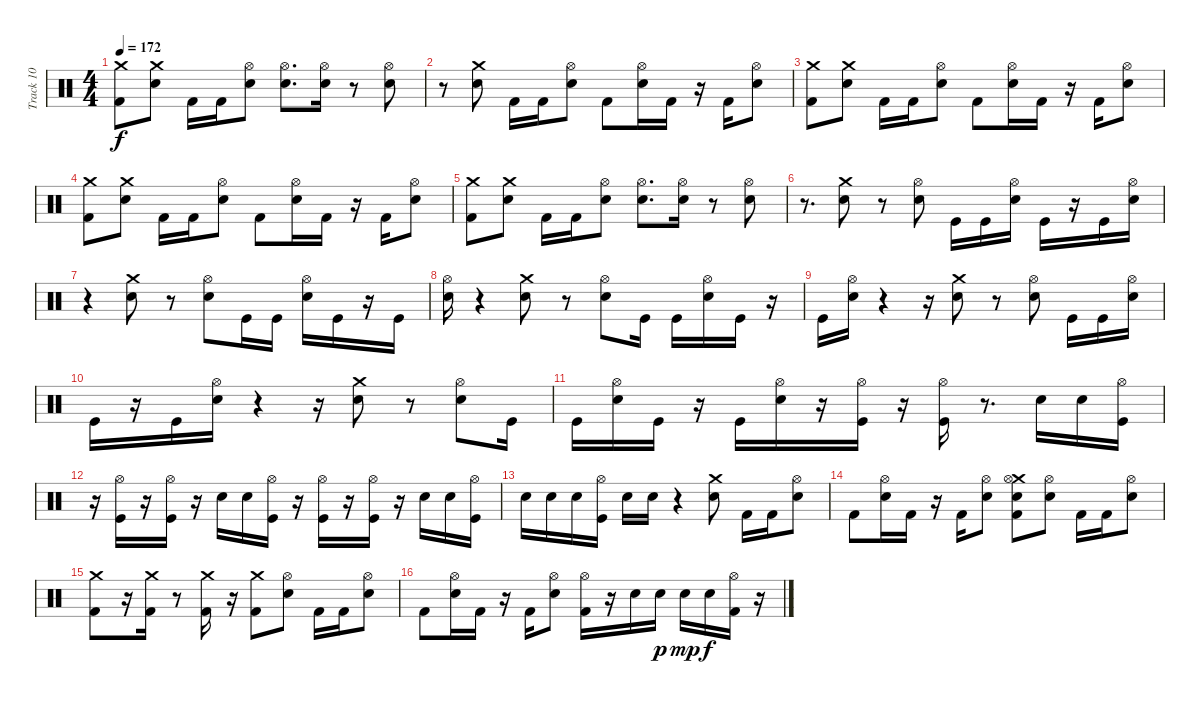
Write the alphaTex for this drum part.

\track ("Track 10" "Track 10") {instrument percussion}
\staff {score}
\articulation defaults
\ts (4 4)
\tempo 172
\clef neutral
\ks c
("Crash medium (hit)" "Kick (hit) 2").8{dy f} ("Crash medium (hit)" "Electric Snare (hit)").8 "Kick (hit) 2".16 "Kick (hit) 2".16 ("Hi-Hat (open)" "Electric Snare (hit)").8 ("Hi-Hat (open)" "Electric Snare (hit)").8{d} ("Hi-Hat (open)" "Electric Snare (hit)").16 r.8 ("Hi-Hat (open)" "Electric Snare (hit)").8 |
r.8 ("Crash medium (hit)" "Electric Snare (hit)").8 "Kick (hit) 2".16 "Kick (hit) 2".16 ("Hi-Hat (open)" "Electric Snare (hit)").8 "Kick (hit) 2".8 ("Hi-Hat (open)" "Electric Snare (hit)").16 "Kick (hit) 2".16 r.16 "Kick (hit) 2".16 ("Hi-Hat (open)" "Electric Snare (hit)").8 |
("Crash medium (hit)" "Kick (hit) 2").8 ("Crash medium (hit)" "Electric Snare (hit)").8 "Kick (hit) 2".16 "Kick (hit) 2".16 ("Hi-Hat (open)" "Electric Snare (hit)").8 "Kick (hit) 2".8 ("Hi-Hat (open)" "Electric Snare (hit)").16 "Kick (hit) 2".16 r.16 "Kick (hit) 2".16 ("Hi-Hat (open)" "Electric Snare (hit)").8 |
("Crash medium (hit)" "Kick (hit) 2").8 ("Crash medium (hit)" "Electric Snare (hit)").8 "Kick (hit) 2".16 "Kick (hit) 2".16 ("Hi-Hat (open)" "Electric Snare (hit)").8 "Kick (hit) 2".8 ("Hi-Hat (open)" "Electric Snare (hit)").16 "Kick (hit) 2".16 r.16 "Kick (hit) 2".16 ("Hi-Hat (open)" "Electric Snare (hit)").8 |
("Crash medium (hit)" "Kick (hit) 2").8 ("Crash medium (hit)" "Electric Snare (hit)").8 "Kick (hit) 2".16 "Kick (hit) 2".16 ("Hi-Hat (open)" "Electric Snare (hit)").8 ("Hi-Hat (open)" "Electric Snare (hit)").8{d} ("Hi-Hat (open)" "Electric Snare (hit)").16 r.8 ("Hi-Hat (open)" "Electric Snare (hit)").8 |
r.8{d} ("Crash medium (hit)" "Electric Snare (hit)").8 r.8 ("Hi-Hat (open)" "Electric Snare (hit)").8 "Kick (hit)".16 "Kick (hit)".16 ("Hi-Hat (open)" "Electric Snare (hit)").16 "Kick (hit)".16 r.16 "Kick (hit)".16 ("Hi-Hat (open)" "Electric Snare (hit)").16 |
r.4 ("Crash medium (hit)" "Electric Snare (hit)").8 r.8 ("Hi-Hat (open)" "Electric Snare (hit)").8 "Kick (hit)".16 "Kick (hit)".16 ("Hi-Hat (open)" "Electric Snare (hit)").16 "Kick (hit)".16 r.16 "Kick (hit)".16 |
("Hi-Hat (open)" "Electric Snare (hit)").16 r.4 ("Crash medium (hit)" "Electric Snare (hit)").8 r.8 ("Hi-Hat (open)" "Electric Snare (hit)").8 "Kick (hit)".16 "Kick (hit)".16 ("Hi-Hat (open)" "Electric Snare (hit)").16 "Kick (hit)".16 r.16 |
"Kick (hit)".16 ("Hi-Hat (open)" "Electric Snare (hit)").16 r.4 r.16 ("Crash medium (hit)" "Electric Snare (hit)").8 r.8 ("Hi-Hat (open)" "Electric Snare (hit)").8 "Kick (hit)".16 "Kick (hit)".16 ("Hi-Hat (open)" "Electric Snare (hit)").16 |
"Kick (hit)".16 r.16 "Kick (hit)".16 ("Hi-Hat (open)" "Electric Snare (hit)").16 r.4 r.16 ("Crash medium (hit)" "Electric Snare (hit)").8 r.8 ("Hi-Hat (open)" "Electric Snare (hit)").8 "Kick (hit)".16 |
"Kick (hit)".16 ("Hi-Hat (open)" "Electric Snare (hit)").16 "Kick (hit)".16 r.16 "Kick (hit)".16 ("Hi-Hat (open)" "Electric Snare (hit)").16 r.16 ("Hi-Hat (open)" "Kick (hit)").16 r.16 ("Hi-Hat (open)" "Kick (hit)").16 r.8{d} "Electric Snare (hit)".16 "Electric Snare (hit)".16 ("Hi-Hat (open)" "Kick (hit)").16 |
r.16 ("Hi-Hat (open)" "Kick (hit)").16 r.16 ("Hi-Hat (open)" "Kick (hit)").16 r.16 "Electric Snare (hit)".16 "Electric Snare (hit)".16 ("Hi-Hat (open)" "Kick (hit)").16 r.16 ("Hi-Hat (open)" "Kick (hit)").16 r.16 ("Hi-Hat (open)" "Kick (hit)").16 r.16 "Electric Snare (hit)".16 "Electric Snare (hit)".16 ("Hi-Hat (open)" "Kick (hit)").16 |
"Electric Snare (hit)".16 "Electric Snare (hit)".16 "Electric Snare (hit)".16 ("Hi-Hat (open)" "Kick (hit)").16 "Electric Snare (hit)".16 "Electric Snare (hit)".16 r.4 ("Crash medium (hit)" "Electric Snare (hit)").8 "Kick (hit) 2".16 "Kick (hit) 2".16 ("Hi-Hat (open)" "Electric Snare (hit)").8 |
"Kick (hit) 2".8 ("Hi-Hat (open)" "Electric Snare (hit)").16 "Kick (hit) 2".16 r.16 "Kick (hit) 2".16 ("Hi-Hat (open)" "Electric Snare (hit)").8 ("Crash medium (hit)" "Kick (hit) 2" "Hi-Hat (open)" "Electric Snare (hit)").8 ("Hi-Hat (open)" "Electric Snare (hit)").8 "Kick (hit) 2".16 "Kick (hit) 2".16 ("Hi-Hat (open)" "Electric Snare (hit)").8 |
("Crash medium (hit)" "Kick (hit) 2").8 r.16 ("Crash medium (hit)" "Kick (hit) 2").16 r.8 ("Crash medium (hit)" "Kick (hit) 2").16 r.16 ("Crash medium (hit)" "Kick (hit) 2").8 ("Hi-Hat (open)" "Electric Snare (hit)").8 "Kick (hit) 2".16 "Kick (hit) 2".16 ("Hi-Hat (open)" "Electric Snare (hit)").8 |
"Kick (hit) 2".8 ("Hi-Hat (open)" "Electric Snare (hit)").16 "Kick (hit) 2".16 r.16 "Kick (hit) 2".16 ("Hi-Hat (open)" "Electric Snare (hit)").8 ("Hi-Hat (open)" "Kick (hit) 2").16 r.16 "Electric Snare (hit)".16 "Electric Snare (hit)".16{dy p} "Electric Snare (hit)".16{dy mp} "Electric Snare (hit)".16{dy f} ("Hi-Hat (open)" "Kick (hit) 2").16 r.16
